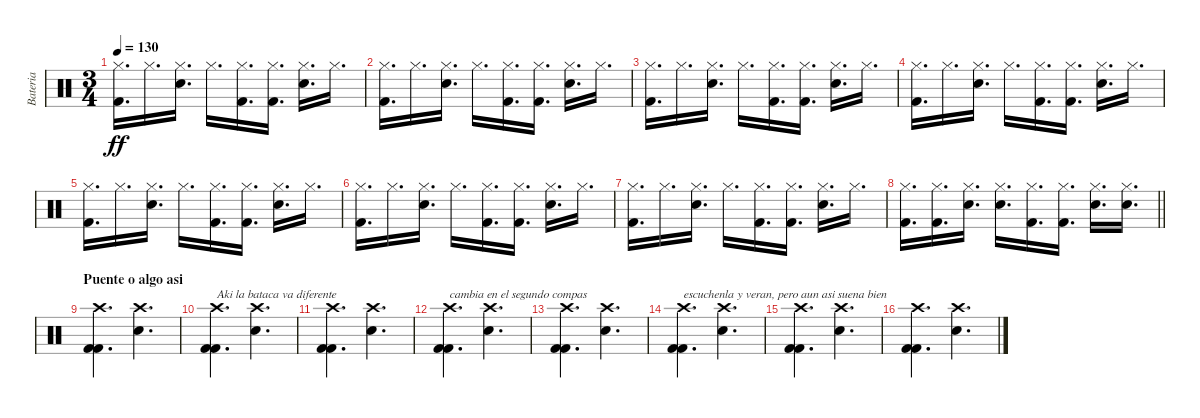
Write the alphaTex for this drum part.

\track ("Bateria" "Bateria") {instrument percussion}
\staff {score}
\articulation defaults
\ts (3 4)
\tempo 130
\clef neutral
\ks c
("Hi-Hat (closed)" "Kick (hit) 2").16{d dy ff} "Hi-Hat (closed)".16{d} ("Hi-Hat (closed)" "Snare (hit) 2").16{d} "Hi-Hat (closed)".16{d} ("Hi-Hat (closed)" "Kick (hit) 2").16{d} ("Hi-Hat (closed)" "Kick (hit) 2").16{d} ("Hi-Hat (closed)" "Snare (hit) 2").16{d} "Hi-Hat (closed)".16{d} |
("Hi-Hat (closed)" "Kick (hit) 2").16{d} "Hi-Hat (closed)".16{d} ("Hi-Hat (closed)" "Snare (hit) 2").16{d} "Hi-Hat (closed)".16{d} ("Hi-Hat (closed)" "Kick (hit) 2").16{d} ("Hi-Hat (closed)" "Kick (hit) 2").16{d} ("Hi-Hat (closed)" "Snare (hit) 2").16{d} "Hi-Hat (closed)".16{d} |
("Hi-Hat (closed)" "Kick (hit) 2").16{d} "Hi-Hat (closed)".16{d} ("Hi-Hat (closed)" "Snare (hit) 2").16{d} "Hi-Hat (closed)".16{d} ("Hi-Hat (closed)" "Kick (hit) 2").16{d} ("Hi-Hat (closed)" "Kick (hit) 2").16{d} ("Hi-Hat (closed)" "Snare (hit) 2").16{d} "Hi-Hat (closed)".16{d} |
("Hi-Hat (closed)" "Kick (hit) 2").16{d} "Hi-Hat (closed)".16{d} ("Hi-Hat (closed)" "Snare (hit) 2").16{d} "Hi-Hat (closed)".16{d} ("Hi-Hat (closed)" "Kick (hit) 2").16{d} ("Hi-Hat (closed)" "Kick (hit) 2").16{d} ("Hi-Hat (closed)" "Snare (hit) 2").16{d} "Hi-Hat (closed)".16{d} |
("Hi-Hat (closed)" "Kick (hit) 2").16{d} "Hi-Hat (closed)".16{d} ("Hi-Hat (closed)" "Snare (hit) 2").16{d} "Hi-Hat (closed)".16{d} ("Hi-Hat (closed)" "Kick (hit) 2").16{d} ("Hi-Hat (closed)" "Kick (hit) 2").16{d} ("Hi-Hat (closed)" "Snare (hit) 2").16{d} "Hi-Hat (closed)".16{d} |
("Hi-Hat (closed)" "Kick (hit) 2").16{d} "Hi-Hat (closed)".16{d} ("Hi-Hat (closed)" "Snare (hit) 2").16{d} "Hi-Hat (closed)".16{d} ("Hi-Hat (closed)" "Kick (hit) 2").16{d} ("Hi-Hat (closed)" "Kick (hit) 2").16{d} ("Hi-Hat (closed)" "Snare (hit) 2").16{d} "Hi-Hat (closed)".16{d} |
("Hi-Hat (closed)" "Kick (hit) 2").16{d} "Hi-Hat (closed)".16{d} ("Hi-Hat (closed)" "Snare (hit) 2").16{d} "Hi-Hat (closed)".16{d} ("Hi-Hat (closed)" "Kick (hit) 2").16{d} ("Hi-Hat (closed)" "Kick (hit) 2").16{d} ("Hi-Hat (closed)" "Snare (hit) 2").16{d} "Hi-Hat (closed)".16{d} |
\barLineRight lightlight
("Hi-Hat (closed)" "Kick (hit) 2").16{d} ("Hi-Hat (closed)" "Kick (hit) 2").16{d} ("Hi-Hat (closed)" "Snare (hit) 2").16{d} ("Hi-Hat (closed)" "Snare (hit) 2").16{d} ("Hi-Hat (closed)" "Kick (hit) 2").16{d} ("Hi-Hat (closed)" "Kick (hit) 2").16{d} ("Hi-Hat (closed)" "Snare (hit) 2").16{d} ("Hi-Hat (closed)" "Snare (hit) 2").16{d} |
\section ("" "Puente o algo asi")
("Crash high (hit)" "Kick (hit) 2" "Kick (hit) 2").4{d} ("Crash high (hit)" "Snare (hit) 2").4{d} |
("Crash high (hit)" "Kick (hit) 2" "Kick (hit) 2").4{d txt "Aki la bataca va diferente"} ("Crash high (hit)" "Snare (hit) 2").4{d} |
("Crash high (hit)" "Kick (hit) 2" "Kick (hit) 2").4{d} ("Crash high (hit)" "Snare (hit) 2").4{d} |
("Crash high (hit)" "Kick (hit) 2" "Kick (hit) 2").4{d txt "cambia en el segundo compas"} ("Crash high (hit)" "Snare (hit) 2").4{d} |
("Crash high (hit)" "Kick (hit) 2" "Kick (hit) 2").4{d} ("Crash high (hit)" "Snare (hit) 2").4{d} |
("Crash high (hit)" "Kick (hit) 2" "Kick (hit) 2").4{d txt "escuchenla y veran, pero aun asi suena bien"} ("Crash high (hit)" "Snare (hit) 2").4{d} |
("Crash high (hit)" "Kick (hit) 2" "Kick (hit) 2").4{d} ("Crash high (hit)" "Snare (hit) 2").4{d} |
("Crash high (hit)" "Kick (hit) 2" "Kick (hit) 2").4{d} ("Crash high (hit)" "Snare (hit) 2").4{d}
